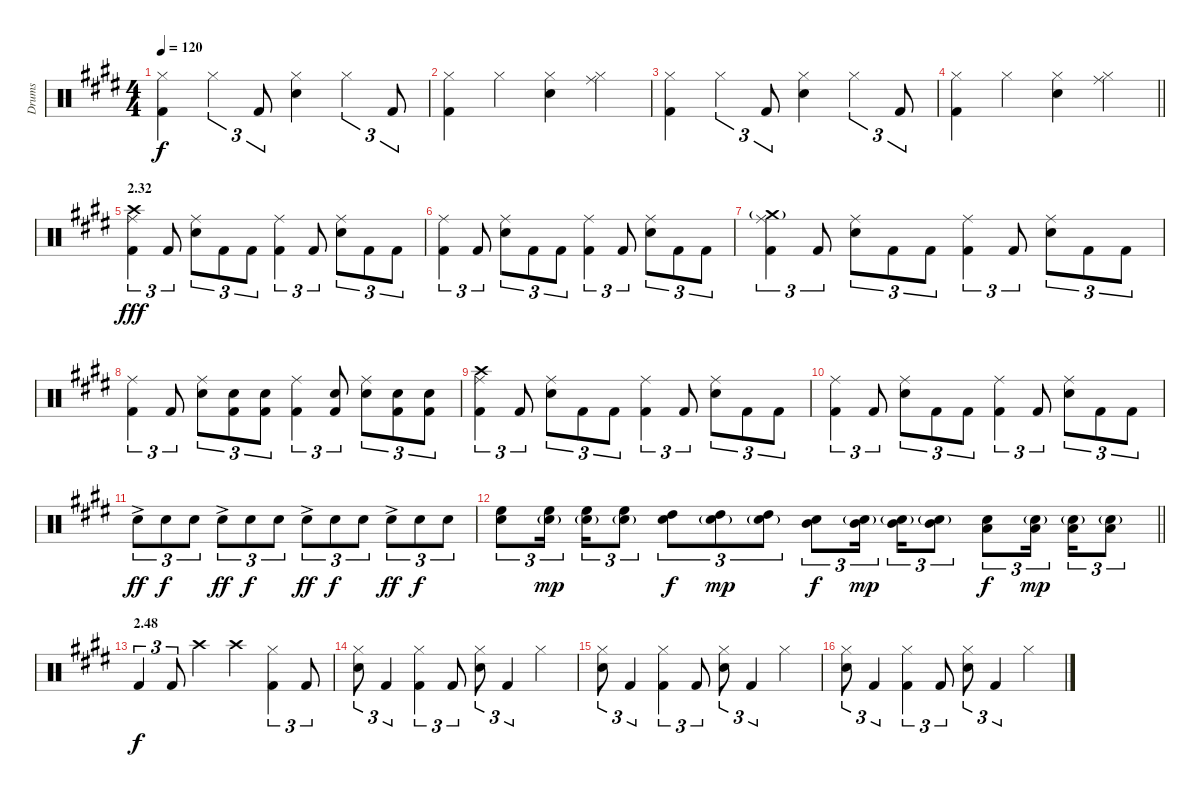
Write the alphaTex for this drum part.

\track ("Drums" "Drums") {instrument percussion}
\staff {score}
\articulation defaults
\ts (4 4)
\tempo 120
\clef neutral
\ks c#minor
("Hi-Hat (closed)" "Kick (hit) 2").4{dy f} "Hi-Hat (closed)".4{tu (3 2)} "Kick (hit) 2".8{tu (3 2)} ("Hi-Hat (closed)" "Electric Snare (hit)").4 "Hi-Hat (closed)".4{tu (3 2)} "Kick (hit) 2".8{tu (3 2)} |
("Hi-Hat (closed)" "Kick (hit) 2").4 "Hi-Hat (closed)".4 ("Hi-Hat (closed)" "Electric Snare (hit)").4 ("Ride (middle)" "Hi-Hat (closed)").4 |
("Hi-Hat (closed)" "Kick (hit) 2").4 "Hi-Hat (closed)".4{tu (3 2)} "Kick (hit) 2".8{tu (3 2)} ("Hi-Hat (closed)" "Electric Snare (hit)").4 "Hi-Hat (closed)".4{tu (3 2)} "Kick (hit) 2".8{tu (3 2)} |
\barLineRight lightlight
("Hi-Hat (closed)" "Kick (hit) 2").4 "Hi-Hat (closed)".4 ("Hi-Hat (closed)" "Electric Snare (hit)").4 ("Ride (middle)" "Hi-Hat (closed)").4 |
\section ("" "2.32")
("Crash high (hit)" "Ride (middle)" "Kick (hit) 2").4{tu (3 2) dy fff} "Kick (hit) 2".8{tu (3 2)} ("Ride (middle)" "Electric Snare (hit)").8{tu (3 2)} "Kick (hit) 2".8{tu (3 2)} "Kick (hit) 2".8{tu (3 2)} ("Ride (middle)" "Kick (hit) 2").4{tu (3 2)} "Kick (hit) 2".8{tu (3 2)} ("Ride (middle)" "Electric Snare (hit)").8{tu (3 2)} "Kick (hit) 2".8{tu (3 2)} "Kick (hit) 2".8{tu (3 2)} |
("Ride (middle)" "Kick (hit) 2").4{tu (3 2)} "Kick (hit) 2".8{tu (3 2)} ("Ride (middle)" "Electric Snare (hit)").8{tu (3 2)} "Kick (hit) 2".8{tu (3 2)} "Kick (hit) 2".8{tu (3 2)} ("Ride (middle)" "Kick (hit) 2").4{tu (3 2)} "Kick (hit) 2".8{tu (3 2)} ("Ride (middle)" "Electric Snare (hit)").8{tu (3 2)} "Kick (hit) 2".8{tu (3 2)} "Kick (hit) 2".8{tu (3 2)} |
("Crash medium (hit)"{g} "Ride (middle)" "Kick (hit) 2").4{tu (3 2)} "Kick (hit) 2".8{tu (3 2)} ("Ride (middle)" "Electric Snare (hit)").8{tu (3 2)} "Kick (hit) 2".8{tu (3 2)} "Kick (hit) 2".8{tu (3 2)} ("Ride (middle)" "Kick (hit) 2").4{tu (3 2)} "Kick (hit) 2".8{tu (3 2)} ("Ride (middle)" "Electric Snare (hit)").8{tu (3 2)} "Kick (hit) 2".8{tu (3 2)} "Kick (hit) 2".8{tu (3 2)} |
("Ride (middle)" "Kick (hit) 2").4{tu (3 2)} "Kick (hit) 2".8{tu (3 2)} ("Ride (middle)" "Electric Snare (hit)").8{tu (3 2)} ("Electric Snare (hit)" "Kick (hit) 2").8{tu (3 2)} ("Electric Snare (hit)" "Kick (hit) 2").8{tu (3 2)} ("Ride (middle)" "Kick (hit) 2").4{tu (3 2)} ("Electric Snare (hit)" "Kick (hit) 2").8{tu (3 2)} ("Ride (middle)" "Electric Snare (hit)").8{tu (3 2)} ("Electric Snare (hit)" "Kick (hit) 2").8{tu (3 2)} ("Electric Snare (hit)" "Kick (hit) 2").8{tu (3 2)} |
("Crash high (hit)" "Ride (middle)" "Kick (hit) 2").4{tu (3 2)} "Kick (hit) 2".8{tu (3 2)} ("Ride (middle)" "Electric Snare (hit)").8{tu (3 2)} "Kick (hit) 2".8{tu (3 2)} "Kick (hit) 2".8{tu (3 2)} ("Ride (middle)" "Kick (hit) 2").4{tu (3 2)} "Kick (hit) 2".8{tu (3 2)} ("Ride (middle)" "Electric Snare (hit)").8{tu (3 2)} "Kick (hit) 2".8{tu (3 2)} "Kick (hit) 2".8{tu (3 2)} |
("Ride (middle)" "Kick (hit) 2").4{tu (3 2)} "Kick (hit) 2".8{tu (3 2)} ("Ride (middle)" "Electric Snare (hit)").8{tu (3 2)} "Kick (hit) 2".8{tu (3 2)} "Kick (hit) 2".8{tu (3 2)} ("Ride (middle)" "Kick (hit) 2").4{tu (3 2)} "Kick (hit) 2".8{tu (3 2)} ("Ride (middle)" "Electric Snare (hit)").8{tu (3 2)} "Kick (hit) 2".8{tu (3 2)} "Kick (hit) 2".8{tu (3 2)} |
"Electric Snare (hit)"{ac}.8{tu (3 2) dy ff} "Electric Snare (hit)".8{tu (3 2) dy f} "Electric Snare (hit)".8{tu (3 2)} "Electric Snare (hit)"{ac}.8{tu (3 2) dy ff} "Electric Snare (hit)".8{tu (3 2) dy f} "Electric Snare (hit)".8{tu (3 2)} "Electric Snare (hit)"{ac}.8{tu (3 2) dy ff} "Electric Snare (hit)".8{tu (3 2) dy f} "Electric Snare (hit)".8{tu (3 2)} "Electric Snare (hit)"{ac}.8{tu (3 2) dy ff} "Electric Snare (hit)".8{tu (3 2) dy f} "Electric Snare (hit)".8{tu (3 2)} |
\barLineRight lightlight
("High Floor Tom (hit)" "Electric Snare (hit)").8{tu (3 2)} ("High Floor Tom (hit)" "Electric Snare (hit)"{g}).16{tu (3 2) dy mp beam splitsecondary} ("High Floor Tom (hit)" "Electric Snare (hit)"{g}).16{tu (3 2)} ("High Floor Tom (hit)" "Electric Snare (hit)"{g}).8{tu (3 2)} ("High Tom (hit)" "Electric Snare (hit)").8{tu (3 2) dy f} ("High Tom (hit)" "Electric Snare (hit)"{g}).8{tu (3 2) dy mp} ("High Tom (hit)" "Electric Snare (hit)"{g}).8{tu (3 2)} ("Mid Tom (hit)" "Electric Snare (hit)").8{tu (3 2) dy f} ("Mid Tom (hit)" "Electric Snare (hit)"{g}).16{tu (3 2) dy mp beam splitsecondary} ("Mid Tom (hit)" "Electric Snare (hit)"{g}).16{tu (3 2)} ("Mid Tom (hit)" "Electric Snare (hit)"{g}).8{tu (3 2)} ("Low Tom (hit)" "Electric Snare (hit)").8{tu (3 2) dy f} ("Low Tom (hit)" "Electric Snare (hit)"{g}).16{tu (3 2) dy mp beam splitsecondary} ("Low Tom (hit)" "Electric Snare (hit)"{g}).16{tu (3 2)} ("Low Tom (hit)" "Electric Snare (hit)"{g}).8{tu (3 2)} |
\section ("" "2.48")
"Kick (hit) 2".4{tu (3 2) dy f} "Kick (hit) 2".8{tu (3 2)} "Crash high (hit)".4 "Crash high (hit)".4 ("Hi-Hat (closed)" "Kick (hit) 2").4{tu (3 2)} "Kick (hit) 2".8{tu (3 2)} |
("Hi-Hat (closed)" "Electric Snare (hit)").8{tu (3 2)} "Kick (hit) 2".4{tu (3 2)} ("Hi-Hat (closed)" "Kick (hit) 2").4{tu (3 2)} "Kick (hit) 2".8{tu (3 2)} ("Hi-Hat (closed)" "Electric Snare (hit)").8{tu (3 2)} "Kick (hit) 2".4{tu (3 2)} "Hi-Hat (closed)".4 |
("Hi-Hat (closed)" "Electric Snare (hit)").8{tu (3 2)} "Kick (hit) 2".4{tu (3 2)} ("Hi-Hat (closed)" "Kick (hit) 2").4{tu (3 2)} "Kick (hit) 2".8{tu (3 2)} ("Hi-Hat (closed)" "Electric Snare (hit)").8{tu (3 2)} "Kick (hit) 2".4{tu (3 2)} "Hi-Hat (closed)".4 |
("Hi-Hat (closed)" "Electric Snare (hit)").8{tu (3 2)} "Kick (hit) 2".4{tu (3 2)} ("Hi-Hat (closed)" "Kick (hit) 2").4{tu (3 2)} "Kick (hit) 2".8{tu (3 2)} ("Hi-Hat (closed)" "Electric Snare (hit)").8{tu (3 2)} "Kick (hit) 2".4{tu (3 2)} "Hi-Hat (closed)".4
